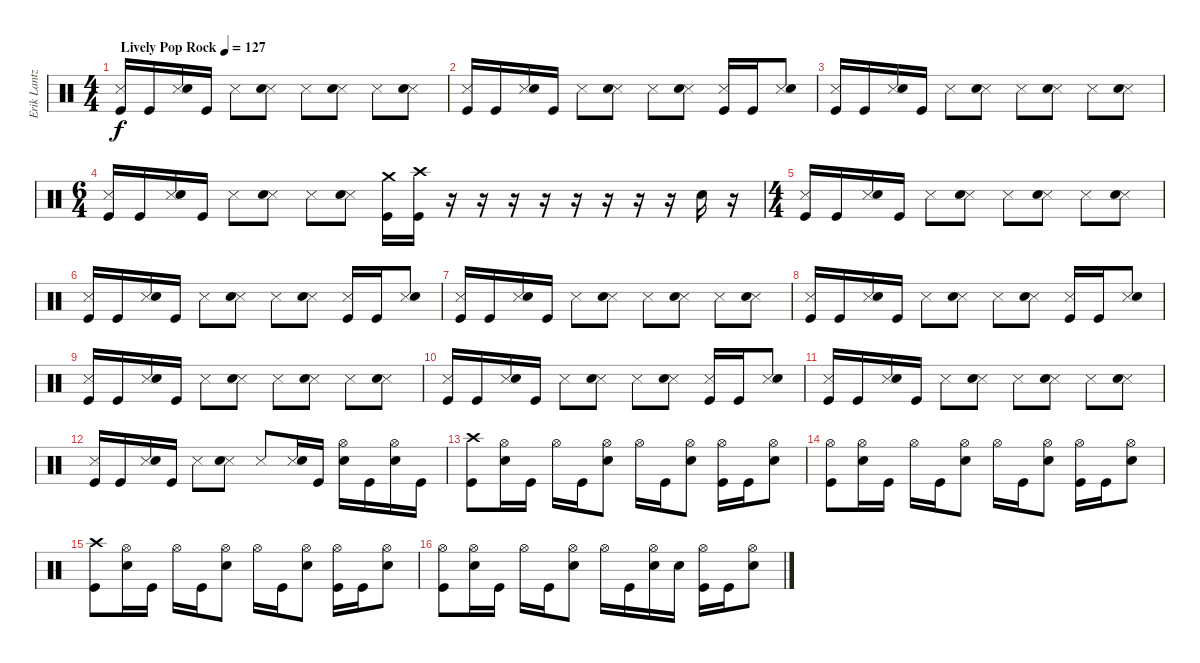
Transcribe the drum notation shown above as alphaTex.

\track ("Erik Lantz" "Erik Lantz") {instrument percussion}
\staff {score}
\articulation defaults
\ts (4 4)
\tempo (127 "Lively Pop Rock")
\clef neutral
\ks c
("Snare (side stick) 3" "Kick (hit)").16{dy f} "Kick (hit)".16 ("Snare (side stick) 3" "Electric Snare (hit)").16 "Kick (hit)".16 "Snare (side stick) 3".8 ("Snare (side stick) 3" "Electric Snare (hit)").8 "Snare (side stick) 3".8 ("Snare (side stick) 3" "Electric Snare (hit)").8 "Snare (side stick) 3".8 ("Snare (side stick) 3" "Electric Snare (hit)").8 |
("Snare (side stick) 3" "Kick (hit)").16 "Kick (hit)".16 ("Snare (side stick) 3" "Electric Snare (hit)").16 "Kick (hit)".16 "Snare (side stick) 3".8 ("Snare (side stick) 3" "Electric Snare (hit)").8 "Snare (side stick) 3".8 ("Snare (side stick) 3" "Electric Snare (hit)").8 ("Snare (side stick) 3" "Kick (hit)").16 "Kick (hit)".16 ("Snare (side stick) 3" "Electric Snare (hit)").8 |
("Snare (side stick) 3" "Kick (hit)").16 "Kick (hit)".16 ("Snare (side stick) 3" "Electric Snare (hit)").16 "Kick (hit)".16 "Snare (side stick) 3".8 ("Snare (side stick) 3" "Electric Snare (hit)").8 "Snare (side stick) 3".8 ("Snare (side stick) 3" "Electric Snare (hit)").8 "Snare (side stick) 3".8 ("Snare (side stick) 3" "Electric Snare (hit)").8 |
\ts (6 4)
("Snare (side stick) 3" "Kick (hit)").16 "Kick (hit)".16 ("Snare (side stick) 3" "Electric Snare (hit)").16 "Kick (hit)".16 "Snare (side stick) 3".8 ("Snare (side stick) 3" "Electric Snare (hit)").8 "Snare (side stick) 3".8 ("Snare (side stick) 3" "Electric Snare (hit)").8 ("Crash medium (hit)" "Kick (hit)").16 ("Crash high (hit)" "Kick (hit)").16 r.16 r.16 r.16 r.16 r.16 r.16 r.16 r.16 "Electric Snare (hit)".16 r.16 |
\ts (4 4)
("Snare (side stick) 3" "Kick (hit)").16 "Kick (hit)".16 ("Snare (side stick) 3" "Electric Snare (hit)").16 "Kick (hit)".16 "Snare (side stick) 3".8 ("Snare (side stick) 3" "Electric Snare (hit)").8 "Snare (side stick) 3".8 ("Snare (side stick) 3" "Electric Snare (hit)").8 "Snare (side stick) 3".8 ("Snare (side stick) 3" "Electric Snare (hit)").8 |
("Snare (side stick) 3" "Kick (hit)").16 "Kick (hit)".16 ("Snare (side stick) 3" "Electric Snare (hit)").16 "Kick (hit)".16 "Snare (side stick) 3".8 ("Snare (side stick) 3" "Electric Snare (hit)").8 "Snare (side stick) 3".8 ("Snare (side stick) 3" "Electric Snare (hit)").8 ("Snare (side stick) 3" "Kick (hit)").16 "Kick (hit)".16 ("Snare (side stick) 3" "Electric Snare (hit)").8 |
("Snare (side stick) 3" "Kick (hit)").16 "Kick (hit)".16 ("Snare (side stick) 3" "Electric Snare (hit)").16 "Kick (hit)".16 "Snare (side stick) 3".8 ("Snare (side stick) 3" "Electric Snare (hit)").8 "Snare (side stick) 3".8 ("Snare (side stick) 3" "Electric Snare (hit)").8 "Snare (side stick) 3".8 ("Snare (side stick) 3" "Electric Snare (hit)").8 |
("Snare (side stick) 3" "Kick (hit)").16 "Kick (hit)".16 ("Snare (side stick) 3" "Electric Snare (hit)").16 "Kick (hit)".16 "Snare (side stick) 3".8 ("Snare (side stick) 3" "Electric Snare (hit)").8 "Snare (side stick) 3".8 ("Snare (side stick) 3" "Electric Snare (hit)").8 ("Snare (side stick) 3" "Kick (hit)").16 "Kick (hit)".16 ("Snare (side stick) 3" "Electric Snare (hit)").8 |
("Snare (side stick) 3" "Kick (hit)").16 "Kick (hit)".16 ("Snare (side stick) 3" "Electric Snare (hit)").16 "Kick (hit)".16 "Snare (side stick) 3".8 ("Snare (side stick) 3" "Electric Snare (hit)").8 "Snare (side stick) 3".8 ("Snare (side stick) 3" "Electric Snare (hit)").8 "Snare (side stick) 3".8 ("Snare (side stick) 3" "Electric Snare (hit)").8 |
("Snare (side stick) 3" "Kick (hit)").16 "Kick (hit)".16 ("Snare (side stick) 3" "Electric Snare (hit)").16 "Kick (hit)".16 "Snare (side stick) 3".8 ("Snare (side stick) 3" "Electric Snare (hit)").8 "Snare (side stick) 3".8 ("Snare (side stick) 3" "Electric Snare (hit)").8 ("Snare (side stick) 3" "Kick (hit)").16 "Kick (hit)".16 ("Snare (side stick) 3" "Electric Snare (hit)").8 |
("Snare (side stick) 3" "Kick (hit)").16 "Kick (hit)".16 ("Snare (side stick) 3" "Electric Snare (hit)").16 "Kick (hit)".16 "Snare (side stick) 3".8 ("Snare (side stick) 3" "Electric Snare (hit)").8 "Snare (side stick) 3".8 ("Snare (side stick) 3" "Electric Snare (hit)").8 "Snare (side stick) 3".8 ("Snare (side stick) 3" "Electric Snare (hit)").8 |
("Snare (side stick) 3" "Kick (hit)").16 "Kick (hit)".16 ("Snare (side stick) 3" "Electric Snare (hit)").16 "Kick (hit)".16 "Snare (side stick) 3".8 ("Snare (side stick) 3" "Electric Snare (hit)").8 "Snare (side stick) 3".8 ("Snare (side stick) 3" "Electric Snare (hit)").16 "Kick (hit)".16 ("Hi-Hat (open)" "Electric Snare (hit)").16 "Kick (hit)".16 ("Hi-Hat (open)" "Electric Snare (hit)").16 "Kick (hit)".16 |
("Crash high (hit)" "Kick (hit)").8 ("Hi-Hat (open)" "Electric Snare (hit)").16 "Kick (hit)".16 "Hi-Hat (open)".16 "Kick (hit)".16 ("Hi-Hat (open)" "Electric Snare (hit)").8 "Hi-Hat (open)".16 "Kick (hit)".16 ("Hi-Hat (open)" "Electric Snare (hit)").8 ("Hi-Hat (open)" "Kick (hit)").16 "Kick (hit)".16 ("Hi-Hat (open)" "Electric Snare (hit)").8 |
("Hi-Hat (open)" "Kick (hit)").8 ("Hi-Hat (open)" "Electric Snare (hit)").16 "Kick (hit)".16 "Hi-Hat (open)".16 "Kick (hit)".16 ("Hi-Hat (open)" "Electric Snare (hit)").8 "Hi-Hat (open)".16 "Kick (hit)".16 ("Hi-Hat (open)" "Electric Snare (hit)").8 ("Hi-Hat (open)" "Kick (hit)").16 "Kick (hit)".16 ("Hi-Hat (open)" "Electric Snare (hit)").8 |
("Crash high (hit)" "Kick (hit)").8 ("Hi-Hat (open)" "Electric Snare (hit)").16 "Kick (hit)".16 "Hi-Hat (open)".16 "Kick (hit)".16 ("Hi-Hat (open)" "Electric Snare (hit)").8 "Hi-Hat (open)".16 "Kick (hit)".16 ("Hi-Hat (open)" "Electric Snare (hit)").8 ("Hi-Hat (open)" "Kick (hit)").16 "Kick (hit)".16 ("Hi-Hat (open)" "Electric Snare (hit)").8 |
("Hi-Hat (open)" "Kick (hit)").8 ("Hi-Hat (open)" "Electric Snare (hit)").16 "Kick (hit)".16 "Hi-Hat (open)".16 "Kick (hit)".16 ("Hi-Hat (open)" "Electric Snare (hit)").8 "Hi-Hat (open)".16 "Kick (hit)".16 ("Hi-Hat (open)" "Electric Snare (hit)").16 "Electric Snare (hit)".16 ("Hi-Hat (open)" "Kick (hit)").16 "Kick (hit)".16 ("Hi-Hat (open)" "Electric Snare (hit)").8
